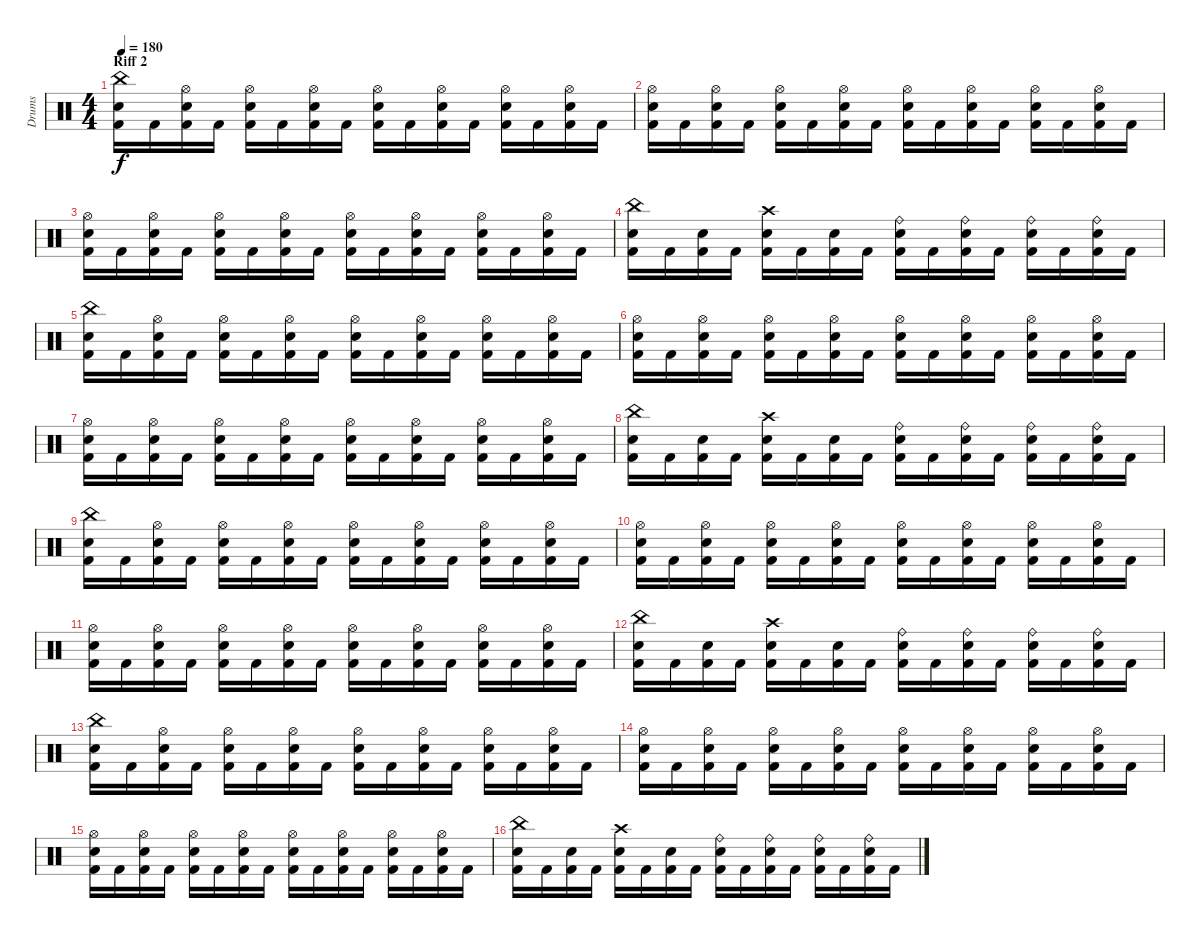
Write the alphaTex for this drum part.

\track ("Drums" "Drums") {instrument percussion}
\staff {score}
\articulation defaults
\ts (4 4)
\section ("" "Riff 2")
\tempo 180
\clef neutral
\ks c
("Kick (hit) 2" "Snare (hit) 2" "China (hit)").16{dy f} "Kick (hit) 2".16 ("Kick (hit) 2" "Snare (hit) 2" "Hi-Hat (open)").16 "Kick (hit) 2".16 ("Kick (hit) 2" "Snare (hit) 2" "Hi-Hat (open)").16 "Kick (hit) 2".16 ("Kick (hit) 2" "Snare (hit) 2" "Hi-Hat (open)").16 "Kick (hit) 2".16 ("Kick (hit) 2" "Snare (hit) 2" "Hi-Hat (open)").16 "Kick (hit) 2".16 ("Kick (hit) 2" "Snare (hit) 2" "Hi-Hat (open)").16 "Kick (hit) 2".16 ("Kick (hit) 2" "Snare (hit) 2" "Hi-Hat (open)").16 "Kick (hit) 2".16 ("Kick (hit) 2" "Snare (hit) 2" "Hi-Hat (open)").16 "Kick (hit) 2".16 |
("Kick (hit) 2" "Snare (hit) 2" "Hi-Hat (open)").16 "Kick (hit) 2".16 ("Kick (hit) 2" "Snare (hit) 2" "Hi-Hat (open)").16 "Kick (hit) 2".16 ("Kick (hit) 2" "Snare (hit) 2" "Hi-Hat (open)").16 "Kick (hit) 2".16 ("Kick (hit) 2" "Snare (hit) 2" "Hi-Hat (open)").16 "Kick (hit) 2".16 ("Kick (hit) 2" "Snare (hit) 2" "Hi-Hat (open)").16 "Kick (hit) 2".16 ("Kick (hit) 2" "Snare (hit) 2" "Hi-Hat (open)").16 "Kick (hit) 2".16 ("Kick (hit) 2" "Snare (hit) 2" "Hi-Hat (open)").16 "Kick (hit) 2".16 ("Kick (hit) 2" "Snare (hit) 2" "Hi-Hat (open)").16 "Kick (hit) 2".16 |
("Kick (hit) 2" "Snare (hit) 2" "Hi-Hat (open)").16 "Kick (hit) 2".16 ("Kick (hit) 2" "Snare (hit) 2" "Hi-Hat (open)").16 "Kick (hit) 2".16 ("Kick (hit) 2" "Snare (hit) 2" "Hi-Hat (open)").16 "Kick (hit) 2".16 ("Kick (hit) 2" "Snare (hit) 2" "Hi-Hat (open)").16 "Kick (hit) 2".16 ("Kick (hit) 2" "Snare (hit) 2" "Hi-Hat (open)").16 "Kick (hit) 2".16 ("Kick (hit) 2" "Snare (hit) 2" "Hi-Hat (open)").16 "Kick (hit) 2".16 ("Kick (hit) 2" "Snare (hit) 2" "Hi-Hat (open)").16 "Kick (hit) 2".16 ("Kick (hit) 2" "Snare (hit) 2" "Hi-Hat (open)").16 "Kick (hit) 2".16 |
("Kick (hit) 2" "Snare (hit) 2" "China (hit)").16 "Kick (hit) 2".16 ("Kick (hit) 2" "Snare (hit) 2").16 "Kick (hit) 2".16 ("Kick (hit) 2" "Snare (hit) 2" "Crash high (hit)").16 "Kick (hit) 2".16 ("Kick (hit) 2" "Snare (hit) 2").16 "Kick (hit) 2".16 ("Kick (hit) 2" "Snare (hit) 2" "Ride (bell)").16 "Kick (hit) 2".16 ("Kick (hit) 2" "Snare (hit) 2" "Ride (bell)").16 "Kick (hit) 2".16 ("Kick (hit) 2" "Snare (hit) 2" "Ride (bell)").16 "Kick (hit) 2".16 ("Kick (hit) 2" "Snare (hit) 2" "Ride (bell)").16 "Kick (hit) 2".16 |
("Kick (hit) 2" "Snare (hit) 2" "China (hit)").16 "Kick (hit) 2".16 ("Kick (hit) 2" "Snare (hit) 2" "Hi-Hat (open)").16 "Kick (hit) 2".16 ("Kick (hit) 2" "Snare (hit) 2" "Hi-Hat (open)").16 "Kick (hit) 2".16 ("Kick (hit) 2" "Snare (hit) 2" "Hi-Hat (open)").16 "Kick (hit) 2".16 ("Kick (hit) 2" "Snare (hit) 2" "Hi-Hat (open)").16 "Kick (hit) 2".16 ("Kick (hit) 2" "Snare (hit) 2" "Hi-Hat (open)").16 "Kick (hit) 2".16 ("Kick (hit) 2" "Snare (hit) 2" "Hi-Hat (open)").16 "Kick (hit) 2".16 ("Kick (hit) 2" "Snare (hit) 2" "Hi-Hat (open)").16 "Kick (hit) 2".16 |
("Kick (hit) 2" "Snare (hit) 2" "Hi-Hat (open)").16 "Kick (hit) 2".16 ("Kick (hit) 2" "Snare (hit) 2" "Hi-Hat (open)").16 "Kick (hit) 2".16 ("Kick (hit) 2" "Snare (hit) 2" "Hi-Hat (open)").16 "Kick (hit) 2".16 ("Kick (hit) 2" "Snare (hit) 2" "Hi-Hat (open)").16 "Kick (hit) 2".16 ("Kick (hit) 2" "Snare (hit) 2" "Hi-Hat (open)").16 "Kick (hit) 2".16 ("Kick (hit) 2" "Snare (hit) 2" "Hi-Hat (open)").16 "Kick (hit) 2".16 ("Kick (hit) 2" "Snare (hit) 2" "Hi-Hat (open)").16 "Kick (hit) 2".16 ("Kick (hit) 2" "Snare (hit) 2" "Hi-Hat (open)").16 "Kick (hit) 2".16 |
("Kick (hit) 2" "Snare (hit) 2" "Hi-Hat (open)").16 "Kick (hit) 2".16 ("Kick (hit) 2" "Snare (hit) 2" "Hi-Hat (open)").16 "Kick (hit) 2".16 ("Kick (hit) 2" "Snare (hit) 2" "Hi-Hat (open)").16 "Kick (hit) 2".16 ("Kick (hit) 2" "Snare (hit) 2" "Hi-Hat (open)").16 "Kick (hit) 2".16 ("Kick (hit) 2" "Snare (hit) 2" "Hi-Hat (open)").16 "Kick (hit) 2".16 ("Kick (hit) 2" "Snare (hit) 2" "Hi-Hat (open)").16 "Kick (hit) 2".16 ("Kick (hit) 2" "Snare (hit) 2" "Hi-Hat (open)").16 "Kick (hit) 2".16 ("Kick (hit) 2" "Snare (hit) 2" "Hi-Hat (open)").16 "Kick (hit) 2".16 |
("Kick (hit) 2" "Snare (hit) 2" "China (hit)").16 "Kick (hit) 2".16 ("Kick (hit) 2" "Snare (hit) 2").16 "Kick (hit) 2".16 ("Kick (hit) 2" "Snare (hit) 2" "Crash high (hit)").16 "Kick (hit) 2".16 ("Kick (hit) 2" "Snare (hit) 2").16 "Kick (hit) 2".16 ("Kick (hit) 2" "Snare (hit) 2" "Ride (bell)").16 "Kick (hit) 2".16 ("Kick (hit) 2" "Snare (hit) 2" "Ride (bell)").16 "Kick (hit) 2".16 ("Kick (hit) 2" "Snare (hit) 2" "Ride (bell)").16 "Kick (hit) 2".16 ("Kick (hit) 2" "Snare (hit) 2" "Ride (bell)").16 "Kick (hit) 2".16 |
("Kick (hit) 2" "Snare (hit) 2" "China (hit)").16 "Kick (hit) 2".16 ("Kick (hit) 2" "Snare (hit) 2" "Hi-Hat (open)").16 "Kick (hit) 2".16 ("Kick (hit) 2" "Snare (hit) 2" "Hi-Hat (open)").16 "Kick (hit) 2".16 ("Kick (hit) 2" "Snare (hit) 2" "Hi-Hat (open)").16 "Kick (hit) 2".16 ("Kick (hit) 2" "Snare (hit) 2" "Hi-Hat (open)").16 "Kick (hit) 2".16 ("Kick (hit) 2" "Snare (hit) 2" "Hi-Hat (open)").16 "Kick (hit) 2".16 ("Kick (hit) 2" "Snare (hit) 2" "Hi-Hat (open)").16 "Kick (hit) 2".16 ("Kick (hit) 2" "Snare (hit) 2" "Hi-Hat (open)").16 "Kick (hit) 2".16 |
("Kick (hit) 2" "Snare (hit) 2" "Hi-Hat (open)").16 "Kick (hit) 2".16 ("Kick (hit) 2" "Snare (hit) 2" "Hi-Hat (open)").16 "Kick (hit) 2".16 ("Kick (hit) 2" "Snare (hit) 2" "Hi-Hat (open)").16 "Kick (hit) 2".16 ("Kick (hit) 2" "Snare (hit) 2" "Hi-Hat (open)").16 "Kick (hit) 2".16 ("Kick (hit) 2" "Snare (hit) 2" "Hi-Hat (open)").16 "Kick (hit) 2".16 ("Kick (hit) 2" "Snare (hit) 2" "Hi-Hat (open)").16 "Kick (hit) 2".16 ("Kick (hit) 2" "Snare (hit) 2" "Hi-Hat (open)").16 "Kick (hit) 2".16 ("Kick (hit) 2" "Snare (hit) 2" "Hi-Hat (open)").16 "Kick (hit) 2".16 |
("Kick (hit) 2" "Snare (hit) 2" "Hi-Hat (open)").16 "Kick (hit) 2".16 ("Kick (hit) 2" "Snare (hit) 2" "Hi-Hat (open)").16 "Kick (hit) 2".16 ("Kick (hit) 2" "Snare (hit) 2" "Hi-Hat (open)").16 "Kick (hit) 2".16 ("Kick (hit) 2" "Snare (hit) 2" "Hi-Hat (open)").16 "Kick (hit) 2".16 ("Kick (hit) 2" "Snare (hit) 2" "Hi-Hat (open)").16 "Kick (hit) 2".16 ("Kick (hit) 2" "Snare (hit) 2" "Hi-Hat (open)").16 "Kick (hit) 2".16 ("Kick (hit) 2" "Snare (hit) 2" "Hi-Hat (open)").16 "Kick (hit) 2".16 ("Kick (hit) 2" "Snare (hit) 2" "Hi-Hat (open)").16 "Kick (hit) 2".16 |
("Kick (hit) 2" "Snare (hit) 2" "China (hit)").16 "Kick (hit) 2".16 ("Kick (hit) 2" "Snare (hit) 2").16 "Kick (hit) 2".16 ("Kick (hit) 2" "Snare (hit) 2" "Crash high (hit)").16 "Kick (hit) 2".16 ("Kick (hit) 2" "Snare (hit) 2").16 "Kick (hit) 2".16 ("Kick (hit) 2" "Snare (hit) 2" "Ride (bell)").16 "Kick (hit) 2".16 ("Kick (hit) 2" "Snare (hit) 2" "Ride (bell)").16 "Kick (hit) 2".16 ("Kick (hit) 2" "Snare (hit) 2" "Ride (bell)").16 "Kick (hit) 2".16 ("Kick (hit) 2" "Snare (hit) 2" "Ride (bell)").16 "Kick (hit) 2".16 |
("Kick (hit) 2" "Snare (hit) 2" "China (hit)").16 "Kick (hit) 2".16 ("Kick (hit) 2" "Snare (hit) 2" "Hi-Hat (open)").16 "Kick (hit) 2".16 ("Kick (hit) 2" "Snare (hit) 2" "Hi-Hat (open)").16 "Kick (hit) 2".16 ("Kick (hit) 2" "Snare (hit) 2" "Hi-Hat (open)").16 "Kick (hit) 2".16 ("Kick (hit) 2" "Snare (hit) 2" "Hi-Hat (open)").16 "Kick (hit) 2".16 ("Kick (hit) 2" "Snare (hit) 2" "Hi-Hat (open)").16 "Kick (hit) 2".16 ("Kick (hit) 2" "Snare (hit) 2" "Hi-Hat (open)").16 "Kick (hit) 2".16 ("Kick (hit) 2" "Snare (hit) 2" "Hi-Hat (open)").16 "Kick (hit) 2".16 |
("Kick (hit) 2" "Snare (hit) 2" "Hi-Hat (open)").16 "Kick (hit) 2".16 ("Kick (hit) 2" "Snare (hit) 2" "Hi-Hat (open)").16 "Kick (hit) 2".16 ("Kick (hit) 2" "Snare (hit) 2" "Hi-Hat (open)").16 "Kick (hit) 2".16 ("Kick (hit) 2" "Snare (hit) 2" "Hi-Hat (open)").16 "Kick (hit) 2".16 ("Kick (hit) 2" "Snare (hit) 2" "Hi-Hat (open)").16 "Kick (hit) 2".16 ("Kick (hit) 2" "Snare (hit) 2" "Hi-Hat (open)").16 "Kick (hit) 2".16 ("Kick (hit) 2" "Snare (hit) 2" "Hi-Hat (open)").16 "Kick (hit) 2".16 ("Kick (hit) 2" "Snare (hit) 2" "Hi-Hat (open)").16 "Kick (hit) 2".16 |
("Kick (hit) 2" "Snare (hit) 2" "Hi-Hat (open)").16 "Kick (hit) 2".16 ("Kick (hit) 2" "Snare (hit) 2" "Hi-Hat (open)").16 "Kick (hit) 2".16 ("Kick (hit) 2" "Snare (hit) 2" "Hi-Hat (open)").16 "Kick (hit) 2".16 ("Kick (hit) 2" "Snare (hit) 2" "Hi-Hat (open)").16 "Kick (hit) 2".16 ("Kick (hit) 2" "Snare (hit) 2" "Hi-Hat (open)").16 "Kick (hit) 2".16 ("Kick (hit) 2" "Snare (hit) 2" "Hi-Hat (open)").16 "Kick (hit) 2".16 ("Kick (hit) 2" "Snare (hit) 2" "Hi-Hat (open)").16 "Kick (hit) 2".16 ("Kick (hit) 2" "Snare (hit) 2" "Hi-Hat (open)").16 "Kick (hit) 2".16 |
("Kick (hit) 2" "Snare (hit) 2" "China (hit)").16 "Kick (hit) 2".16 ("Kick (hit) 2" "Snare (hit) 2").16 "Kick (hit) 2".16 ("Kick (hit) 2" "Snare (hit) 2" "Crash high (hit)").16 "Kick (hit) 2".16 ("Kick (hit) 2" "Snare (hit) 2").16 "Kick (hit) 2".16 ("Kick (hit) 2" "Snare (hit) 2" "Ride (bell)").16 "Kick (hit) 2".16 ("Kick (hit) 2" "Snare (hit) 2" "Ride (bell)").16 "Kick (hit) 2".16 ("Kick (hit) 2" "Snare (hit) 2" "Ride (bell)").16 "Kick (hit) 2".16 ("Kick (hit) 2" "Snare (hit) 2" "Ride (bell)").16 "Kick (hit) 2".16
